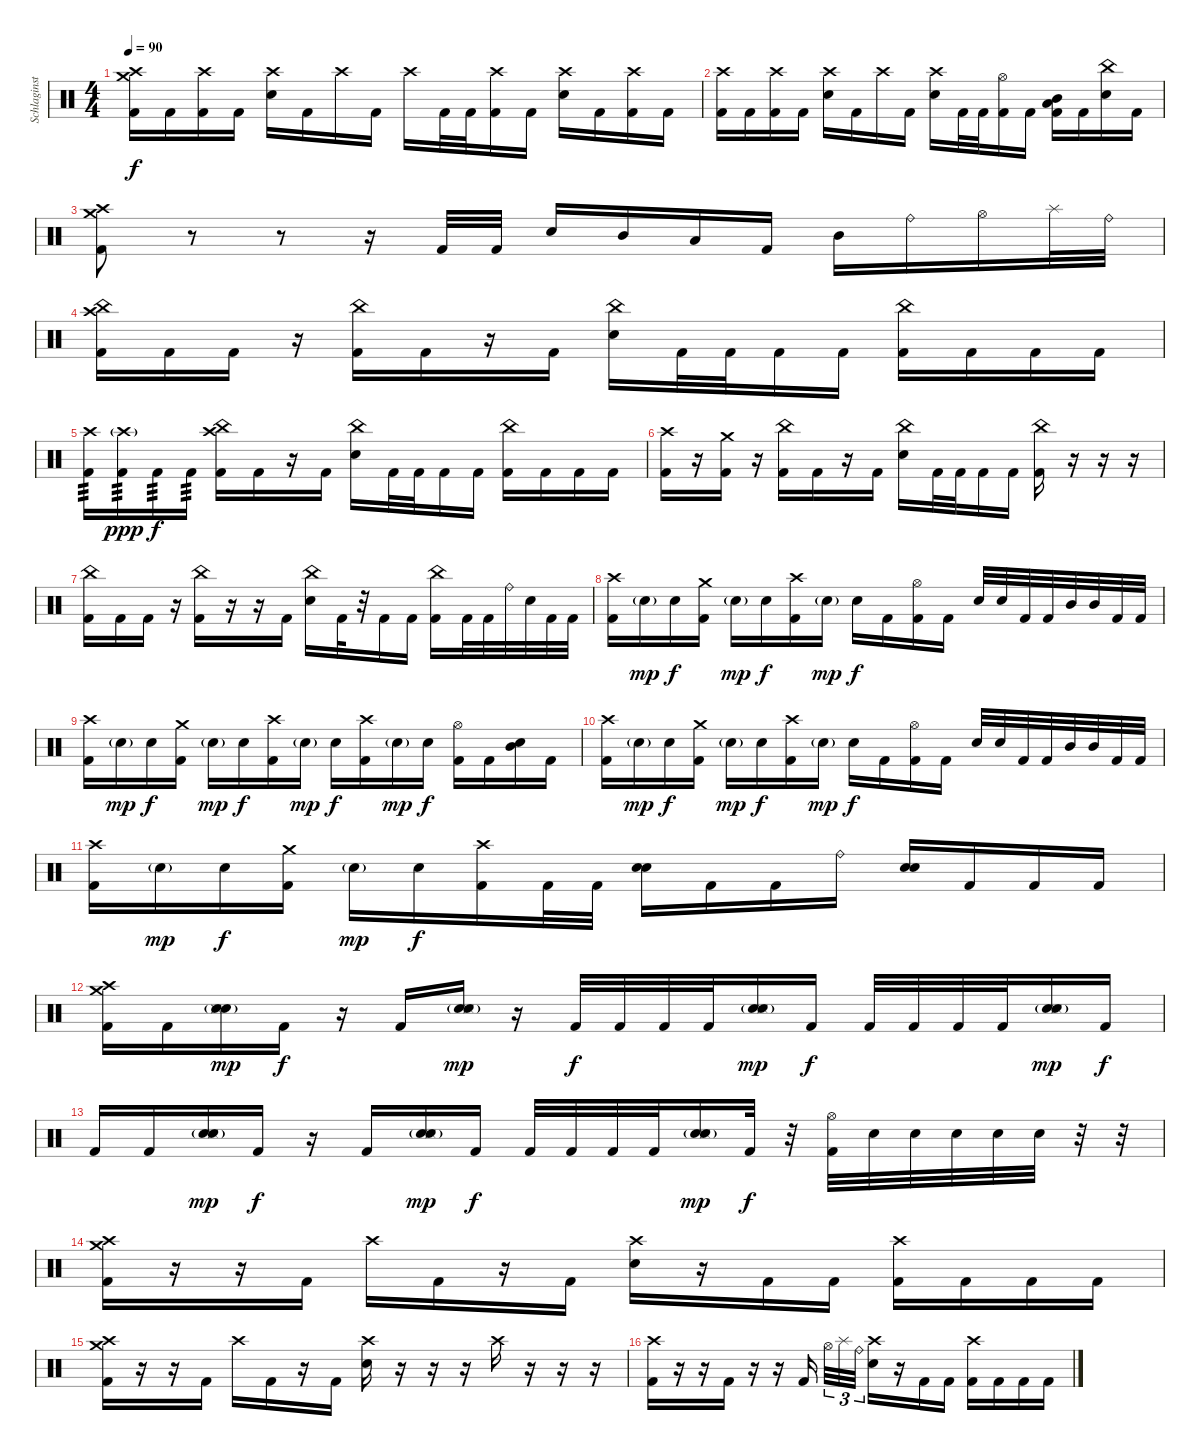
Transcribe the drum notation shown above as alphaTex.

\track ("Schlaginstrumente - Auswahl" "Schlaginst") {instrument percussion}
\staff {score}
\articulation defaults
\ts (4 4)
\tempo 90
\clef neutral
\ks c
("Crash high (hit)" "Crash medium (hit)" "Kick (hit) 2").16{dy f} "Kick (hit) 2".16 ("Crash high (hit)" "Kick (hit) 2").16 "Kick (hit) 2".16 ("Crash high (hit)" "Electric Snare (hit)").16 "Kick (hit) 2".16 "Crash high (hit)".16 "Kick (hit) 2".16 "Crash high (hit)".16 "Kick (hit) 2".32 "Kick (hit) 2".32 ("Crash high (hit)" "Kick (hit) 2").16 "Kick (hit) 2".16 ("Crash high (hit)" "Electric Snare (hit)").16 "Kick (hit) 2".16 ("Crash high (hit)" "Kick (hit) 2").16 "Kick (hit) 2".16 |
("Crash high (hit)" "Kick (hit) 2").16 "Kick (hit) 2".16 ("Crash high (hit)" "Kick (hit) 2").16 "Kick (hit) 2".16 ("Crash high (hit)" "Electric Snare (hit)").16 "Kick (hit) 2".16 "Crash high (hit)".16 "Kick (hit) 2".16 ("Crash high (hit)" "Electric Snare (hit)").16 "Kick (hit) 2".32 "Kick (hit) 2".32 ("Hi-Hat (open)" "Kick (hit) 2").16 "Kick (hit) 2".16 ("Mid Tom (hit)" "Low Tom (hit)" "Kick (hit) 2").16 "Kick (hit) 2".16 ("China (hit)" "Electric Snare (hit)").16 "Kick (hit) 2".16 |
("Crash high (hit)" "Crash medium (hit)" "Kick (hit) 2").8 r.8 r.8 r.16 "Kick (hit) 2".32 "Kick (hit) 2".32 "Electric Snare (hit)".16 "Mid Tom (hit)".16 "Low Tom (hit)".16 "Kick (hit) 2".16 "Mid Tom (hit)".16 "Ride (bell)".16 "Hi-Hat (open)".16 "Splash (hit)".32 "Ride (bell)".32 |
("Crash high (hit)" "China (hit)" "Kick (hit) 2").16 "Kick (hit) 2".16 "Kick (hit) 2".16 r.16 ("China (hit)" "Kick (hit) 2").16 "Kick (hit) 2".16 r.16 "Kick (hit) 2".16 ("China (hit)" "Electric Snare (hit)").16 "Kick (hit) 2".32 "Kick (hit) 2".32 "Kick (hit) 2".16 "Kick (hit) 2".16 ("China (hit)" "Kick (hit) 2").16 "Kick (hit) 2".16 "Kick (hit) 2".16 "Kick (hit) 2".16 |
("Crash high (hit)" "Kick (hit) 2").16{tp 3} ("Crash high (hit)"{g} "Kick (hit) 2").16{tp 3 dy ppp} "Kick (hit) 2".16{tp 3 dy f} "Kick (hit) 2".16{tp 3} ("Crash high (hit)" "China (hit)" "Kick (hit) 2").16 "Kick (hit) 2".16 r.16 "Kick (hit) 2".16 ("China (hit)" "Electric Snare (hit)").16 "Kick (hit) 2".32 "Kick (hit) 2".32 "Kick (hit) 2".16 "Kick (hit) 2".16 ("China (hit)" "Kick (hit) 2").16 "Kick (hit) 2".16 "Kick (hit) 2".16 "Kick (hit) 2".16 |
("Crash high (hit)" "Kick (hit) 2").16 r.16 ("Crash medium (hit)" "Kick (hit) 2").16 r.16 ("China (hit)" "Kick (hit) 2").16 "Kick (hit) 2".16 r.16 "Kick (hit) 2".16 ("China (hit)" "Electric Snare (hit)").16 "Kick (hit) 2".32 "Kick (hit) 2".32 "Kick (hit) 2".16 "Kick (hit) 2".16 ("China (hit)" "Kick (hit) 2").16 r.16 r.16 r.16 |
("China (hit)" "Kick (hit) 2").16 "Kick (hit) 2".16 "Kick (hit) 2".16 r.16 ("China (hit)" "Kick (hit) 2").16 r.16 r.16 "Kick (hit) 2".16 ("China (hit)" "Electric Snare (hit)").16 "Kick (hit) 2".32 r.32 "Kick (hit) 2".16 "Kick (hit) 2".16 ("China (hit)" "Kick (hit) 2").16 "Kick (hit) 2".32 "Kick (hit) 2".32 "Ride (bell)".32 "Electric Snare (hit)".32 "Kick (hit) 2".32 "Kick (hit) 2".32 |
("Crash high (hit)" "Kick (hit) 2").16 "Electric Snare (hit)"{g}.16{dy mp} "Electric Snare (hit)".16{dy f} ("Crash medium (hit)" "Kick (hit) 2").16 "Electric Snare (hit)"{g}.16{dy mp} "Electric Snare (hit)".16{dy f} ("Crash high (hit)" "Kick (hit) 2").16 "Electric Snare (hit)"{g}.16{dy mp} "Electric Snare (hit)".16{dy f} "Kick (hit) 2".16 ("Hi-Hat (open)" "Kick (hit) 2").16 "Kick (hit) 2".16 "Electric Snare (hit)".32 "Electric Snare (hit)".32 "Kick (hit) 2".32 "Kick (hit) 2".32 "Mid Tom (hit)".32 "Mid Tom (hit)".32 "Kick (hit) 2".32 "Kick (hit) 2".32 |
("Crash high (hit)" "Kick (hit) 2").16 "Electric Snare (hit)"{g}.16{dy mp} "Electric Snare (hit)".16{dy f} ("Crash medium (hit)" "Kick (hit) 2").16 "Electric Snare (hit)"{g}.16{dy mp} "Electric Snare (hit)".16{dy f} ("Crash high (hit)" "Kick (hit) 2").16 "Electric Snare (hit)"{g}.16{dy mp} "Electric Snare (hit)".16{dy f} ("Crash high (hit)" "Kick (hit) 2").16 "Electric Snare (hit)"{g}.16{dy mp} "Electric Snare (hit)".16{dy f} ("Hi-Hat (open)" "Kick (hit) 2").16 "Kick (hit) 2".16 ("Mid Tom (hit)" "Electric Snare (hit)").16 "Kick (hit) 2".16 |
("Crash high (hit)" "Kick (hit) 2").16 "Electric Snare (hit)"{g}.16{dy mp} "Electric Snare (hit)".16{dy f} ("Crash medium (hit)" "Kick (hit) 2").16 "Electric Snare (hit)"{g}.16{dy mp} "Electric Snare (hit)".16{dy f} ("Crash high (hit)" "Kick (hit) 2").16 "Electric Snare (hit)"{g}.16{dy mp} "Electric Snare (hit)".16{dy f} "Kick (hit) 2".16 ("Hi-Hat (open)" "Kick (hit) 2").16 "Kick (hit) 2".16 "Electric Snare (hit)".32 "Electric Snare (hit)".32 "Kick (hit) 2".32 "Kick (hit) 2".32 "Mid Tom (hit)".32 "Mid Tom (hit)".32 "Kick (hit) 2".32 "Kick (hit) 2".32 |
("Crash high (hit)" "Kick (hit) 2").16 "Electric Snare (hit)"{g}.16{dy mp} "Electric Snare (hit)".16{dy f} ("Crash medium (hit)" "Kick (hit) 2").16 "Electric Snare (hit)"{g}.16{dy mp} "Electric Snare (hit)".16{dy f} ("Crash high (hit)" "Kick (hit) 2").16 "Kick (hit) 2".32 "Kick (hit) 2".32 ("Electric Snare (hit)" "Electric Snare (hit)").16{bd 480} "Kick (hit) 2".16 "Kick (hit) 2".16 "Ride (bell)".16 ("Electric Snare (hit)" "Electric Snare (hit)").16{bd 480} "Kick (hit) 2".16 "Kick (hit) 2".16 "Kick (hit) 2".16 |
("Crash high (hit)" "Crash medium (hit)" "Kick (hit) 2").16 "Kick (hit) 2".16 ("Hand Clap (hit)" "Snare (side stick) 3"{g} "Electric Snare (hit)").16{dy mp} "Kick (hit) 2".16{dy f} r.16 "Kick (hit) 2".16 ("Hand Clap (hit)" "Snare (side stick) 3"{g} "Electric Snare (hit)").16{dy mp} r.16 "Kick (hit) 2".32{dy f} "Kick (hit) 2".32 "Kick (hit) 2".32 "Kick (hit) 2".32 ("Hand Clap (hit)" "Snare (side stick) 3"{g} "Electric Snare (hit)").16{dy mp} "Kick (hit) 2".16{dy f} "Kick (hit) 2".32 "Kick (hit) 2".32 "Kick (hit) 2".32 "Kick (hit) 2".32 ("Hand Clap (hit)" "Snare (side stick) 3"{g} "Electric Snare (hit)").16{dy mp} "Kick (hit) 2".16{dy f} |
"Kick (hit) 2".16 "Kick (hit) 2".16 ("Hand Clap (hit)" "Snare (side stick) 3"{g} "Electric Snare (hit)").16{dy mp} "Kick (hit) 2".16{dy f} r.16 "Kick (hit) 2".16 ("Hand Clap (hit)" "Snare (side stick) 3"{g} "Electric Snare (hit)").16{dy mp} "Kick (hit) 2".16{dy f} "Kick (hit) 2".32 "Kick (hit) 2".32 "Kick (hit) 2".32 "Kick (hit) 2".32 ("Hand Clap (hit)" "Snare (side stick) 3"{g} "Electric Snare (hit)").16{dy mp} "Kick (hit) 2".32{dy f} r.32 ("Hi-Hat (open)" "Kick (hit) 2").32 "Electric Snare (hit)".32 "Electric Snare (hit)".32 "Electric Snare (hit)".32 "Electric Snare (hit)".32 "Electric Snare (hit)".32 r.32 r.32 |
("Crash high (hit)" "Crash medium (hit)" "Kick (hit) 2").16 r.16 r.16 "Kick (hit) 2".16 "Crash high (hit)".16 "Kick (hit) 2".16 r.16 "Kick (hit) 2".16 ("Crash high (hit)" "Electric Snare (hit)").16 r.16 "Kick (hit) 2".16 "Kick (hit) 2".16 ("Crash high (hit)" "Kick (hit) 2").16 "Kick (hit) 2".16 "Kick (hit) 2".16 "Kick (hit) 2".16 |
("Crash high (hit)" "Crash medium (hit)" "Kick (hit) 2").16 r.16 r.16 "Kick (hit) 2".16 "Crash high (hit)".16 "Kick (hit) 2".16 r.16 "Kick (hit) 2".16 ("Crash high (hit)" "Electric Snare (hit)").16 r.16 r.16 r.16 "Crash high (hit)".16 r.16 r.16 r.16 |
("Crash high (hit)" "Kick (hit) 2").16 r.16 r.16 "Kick (hit) 2".16 r.16 r.16 "Kick (hit) 2".16{beam splitsecondary} "Hi-Hat (open)".32{tu (3 2)} "Splash (hit)".32{tu (3 2)} "Ride (bell)".32{tu (3 2)} ("Crash high (hit)" "Electric Snare (hit)").16 r.16 "Kick (hit) 2".16 "Kick (hit) 2".16 ("Crash high (hit)" "Kick (hit) 2").16 "Kick (hit) 2".16 "Kick (hit) 2".16 "Kick (hit) 2".16
